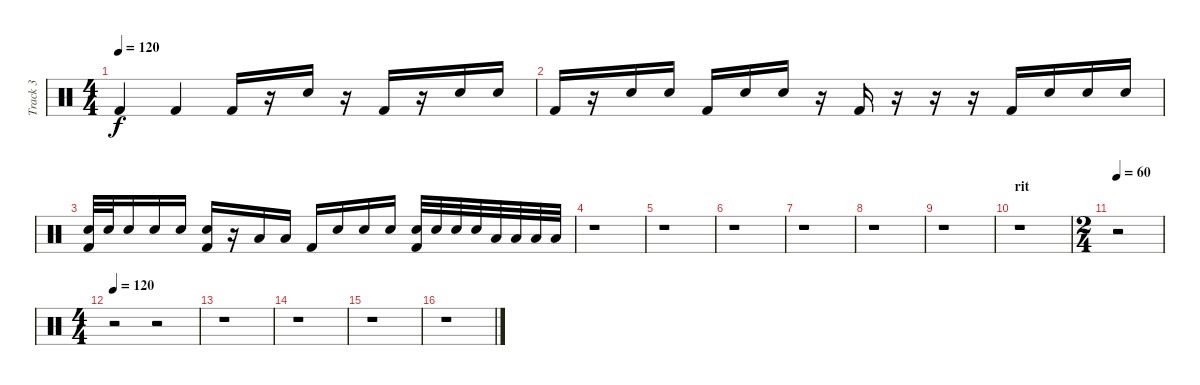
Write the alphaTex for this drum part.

\track ("Track 3" "Track 3") {instrument percussion}
\staff {score}
\articulation defaults
\ts (4 4)
\tempo 120
\clef neutral
\ks c "Kick (hit) 2".4{dy f} "Kick (hit) 2".4 "Kick (hit) 2".16
r.16 "Electric Snare (hit)".16 r.16 "Kick (hit) 2".16 r.16 "Electric Snare (hit)".16 "Electric Snare (hit)".16 |
"Kick (hit) 2".16 r.16 "Electric Snare (hit)".16 "Electric Snare (hit)".16 "Kick (hit) 2".16 "Electric Snare (hit)".16 "Electric Snare (hit)".16 r.16 "Kick (hit) 2".16 r.16 r.16 r.16 "Kick (hit) 2".16 "Electric Snare (hit)".16 "Electric Snare (hit)".16 "Electric Snare (hit)".16 |
("Electric Snare (hit)" "Kick (hit) 2").32 "Electric Snare (hit)".32 "Electric Snare (hit)".16 "Electric Snare (hit)".16 "Electric Snare (hit)".16 ("Electric Snare (hit)" "Kick (hit) 2").16 r.16 "Low Tom (hit)".16 "Low Tom (hit)".16 "Kick (hit) 2".16 "Electric Snare (hit)".16 "Electric Snare (hit)".16 "Electric Snare (hit)".16 ("Electric Snare (hit)" "Kick (hit) 2").32 "Electric Snare (hit)".32 "Electric Snare (hit)".32 "Electric Snare (hit)".32 "Low Tom (hit)".32 "Low Tom (hit)".32 "Low Tom (hit)".32 "Low Tom (hit)".32 |
r.1 |
r.1 |
r.1 |
r.1 |
r.1 |
r.1 |
\section ("" "rit")
r.1 |
\ts (2 4)
\tempo 60
r.2 |
\ts (4 4)
\tempo 120
r.2 r.2 |
r.1 |
r.1 |
r.1 |
r.1
